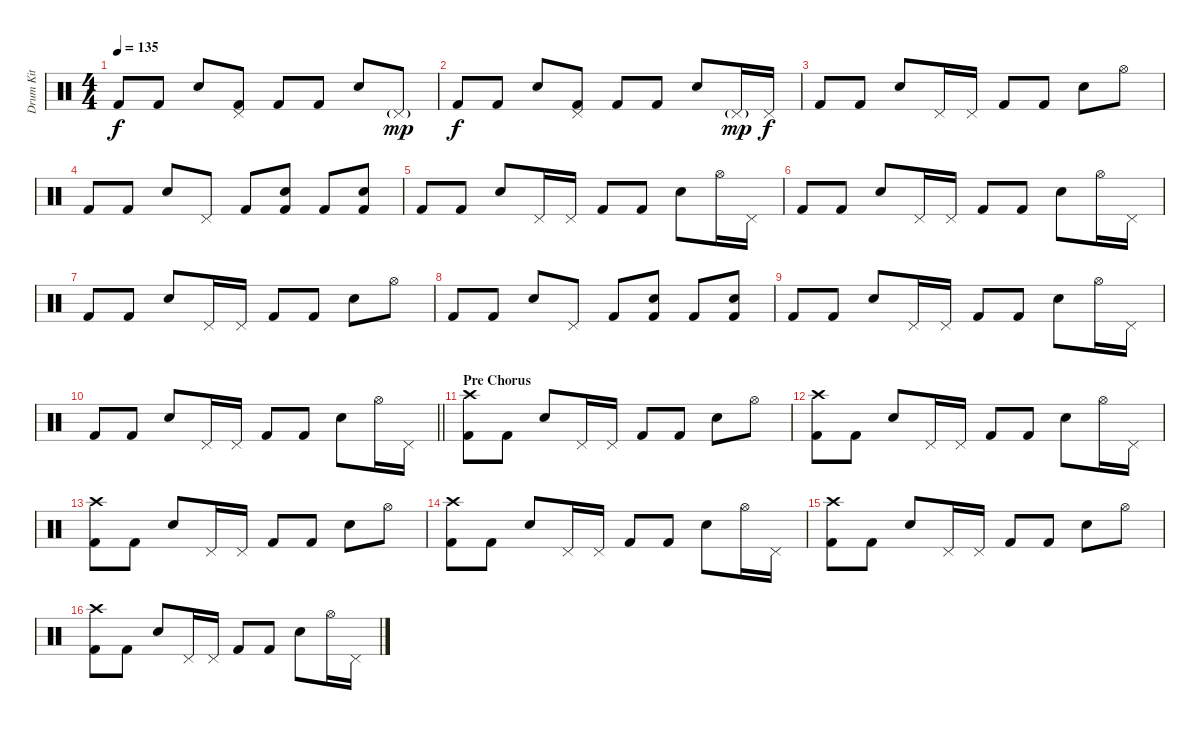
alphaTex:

\track ("Drum Kit" "Drum Kit") {instrument percussion}
\staff {score}
\articulation defaults
\ts (4 4)
\tempo 135
\clef neutral
\ks c "Kick (hit) 2".8{dy f} "Kick (hit) 2".8 "Electric Snare (hit)".8
("Pedal Hi-Hat (hit)" "Kick (hit) 2").8 "Kick (hit) 2".8 "Kick (hit) 2".8 "Electric Snare (hit)".8 "Pedal Hi-Hat (hit)"{g}.8{dy mp} |
"Kick (hit) 2".8{dy f} "Kick (hit) 2".8 "Electric Snare (hit)".8 ("Pedal Hi-Hat (hit)" "Kick (hit) 2").8 "Kick (hit) 2".8 "Kick (hit) 2".8 "Electric Snare (hit)".8 "Pedal Hi-Hat (hit)"{g}.16{dy mp} "Pedal Hi-Hat (hit)".16{dy f} |
"Kick (hit) 2".8 "Kick (hit) 2".8 "Electric Snare (hit)".8 "Pedal Hi-Hat (hit)".16 "Pedal Hi-Hat (hit)".16 "Kick (hit) 2".8 "Kick (hit) 2".8 "Electric Snare (hit)".8 "Hi-Hat (open)".8 |
"Kick (hit) 2".8 "Kick (hit) 2".8 "Electric Snare (hit)".8 "Pedal Hi-Hat (hit)".8 "Kick (hit) 2".8 ("Electric Snare (hit)" "Kick (hit) 2").8 "Kick (hit) 2".8 ("Electric Snare (hit)" "Kick (hit) 2").8 |
"Kick (hit) 2".8 "Kick (hit) 2".8 "Electric Snare (hit)".8 "Pedal Hi-Hat (hit)".16 "Pedal Hi-Hat (hit)".16 "Kick (hit) 2".8 "Kick (hit) 2".8 "Electric Snare (hit)".8 "Hi-Hat (open)".16 "Pedal Hi-Hat (hit)".16 |
"Kick (hit) 2".8 "Kick (hit) 2".8 "Electric Snare (hit)".8 "Pedal Hi-Hat (hit)".16 "Pedal Hi-Hat (hit)".16 "Kick (hit) 2".8 "Kick (hit) 2".8 "Electric Snare (hit)".8 "Hi-Hat (open)".16 "Pedal Hi-Hat (hit)".16 |
"Kick (hit) 2".8 "Kick (hit) 2".8 "Electric Snare (hit)".8 "Pedal Hi-Hat (hit)".16 "Pedal Hi-Hat (hit)".16 "Kick (hit) 2".8 "Kick (hit) 2".8 "Electric Snare (hit)".8 "Hi-Hat (open)".8 |
"Kick (hit) 2".8 "Kick (hit) 2".8 "Electric Snare (hit)".8 "Pedal Hi-Hat (hit)".8 "Kick (hit) 2".8 ("Electric Snare (hit)" "Kick (hit) 2").8 "Kick (hit) 2".8 ("Electric Snare (hit)" "Kick (hit) 2").8 |
"Kick (hit) 2".8 "Kick (hit) 2".8 "Electric Snare (hit)".8 "Pedal Hi-Hat (hit)".16 "Pedal Hi-Hat (hit)".16 "Kick (hit) 2".8 "Kick (hit) 2".8 "Electric Snare (hit)".8 "Hi-Hat (open)".16 "Pedal Hi-Hat (hit)".16 |
\barLineRight lightlight "Kick (hit) 2".8 "Kick (hit) 2".8 "Electric Snare (hit)".8 "Pedal Hi-Hat (hit)".16 "Pedal Hi-Hat (hit)".16 "Kick (hit) 2".8 "Kick (hit) 2".8 "Electric Snare (hit)".8 "Hi-Hat (open)".16 "Pedal Hi-Hat (hit)".16
|
\section ("" "Pre Chorus")
("Crash high (hit)" "Kick (hit) 2").8 "Kick (hit) 2".8 "Electric Snare (hit)".8 "Pedal Hi-Hat (hit)".16 "Pedal Hi-Hat (hit)".16 "Kick (hit) 2".8 "Kick (hit) 2".8 "Electric Snare (hit)".8 "Hi-Hat (open)".8 |
("Crash high (hit)" "Kick (hit) 2").8 "Kick (hit) 2".8 "Electric Snare (hit)".8 "Pedal Hi-Hat (hit)".16 "Pedal Hi-Hat (hit)".16 "Kick (hit) 2".8 "Kick (hit) 2".8 "Electric Snare (hit)".8 "Hi-Hat (open)".16 "Pedal Hi-Hat (hit)".16 |
("Crash high (hit)" "Kick (hit) 2").8 "Kick (hit) 2".8 "Electric Snare (hit)".8 "Pedal Hi-Hat (hit)".16 "Pedal Hi-Hat (hit)".16 "Kick (hit) 2".8 "Kick (hit) 2".8 "Electric Snare (hit)".8 "Hi-Hat (open)".8 |
("Crash high (hit)" "Kick (hit) 2").8 "Kick (hit) 2".8 "Electric Snare (hit)".8 "Pedal Hi-Hat (hit)".16 "Pedal Hi-Hat (hit)".16 "Kick (hit) 2".8 "Kick (hit) 2".8 "Electric Snare (hit)".8 "Hi-Hat (open)".16 "Pedal Hi-Hat (hit)".16 |
("Crash high (hit)" "Kick (hit) 2").8 "Kick (hit) 2".8 "Electric Snare (hit)".8 "Pedal Hi-Hat (hit)".16 "Pedal Hi-Hat (hit)".16 "Kick (hit) 2".8 "Kick (hit) 2".8 "Electric Snare (hit)".8 "Hi-Hat (open)".8 |
("Crash high (hit)" "Kick (hit) 2").8 "Kick (hit) 2".8 "Electric Snare (hit)".8 "Pedal Hi-Hat (hit)".16 "Pedal Hi-Hat (hit)".16 "Kick (hit) 2".8 "Kick (hit) 2".8 "Electric Snare (hit)".8 "Hi-Hat (open)".16 "Pedal Hi-Hat (hit)".16
